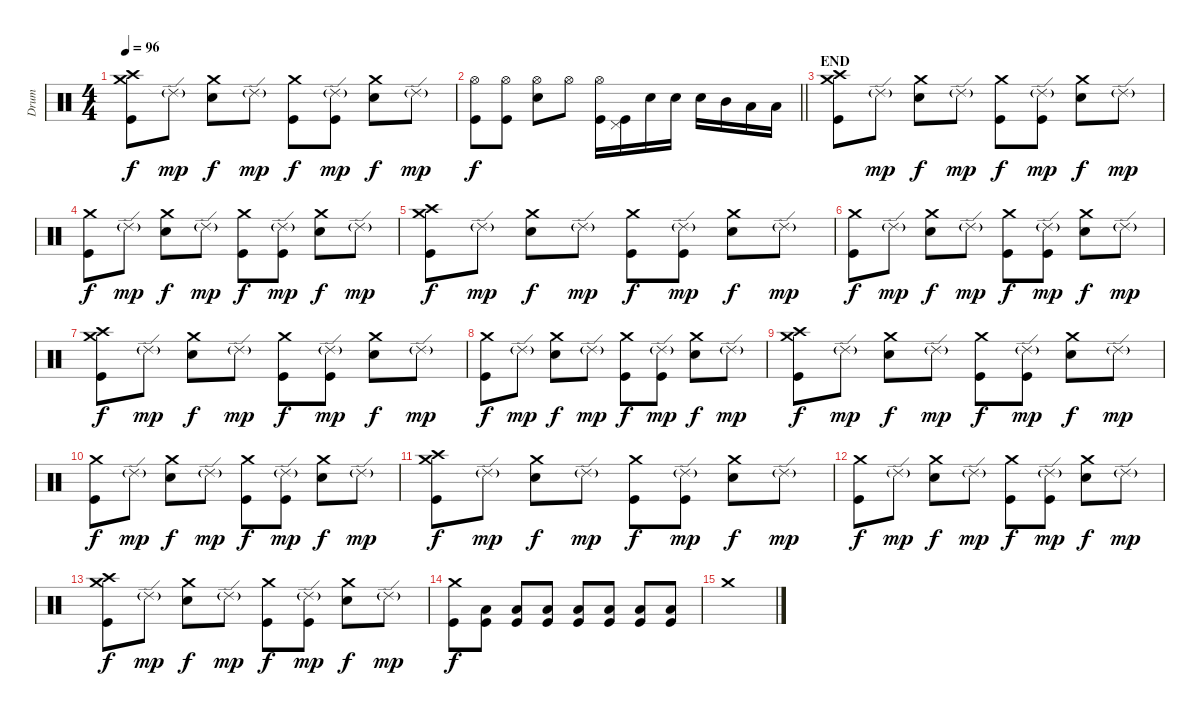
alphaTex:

\track ("Drum" "Drum") {instrument percussion}
\staff {score}
\articulation defaults
\ts (4 4)
\tempo 96
\clef neutral
\ks c
("Crash high (hit)" "Crash medium (hit)" "Kick (hit)").8{dy f} "Ride (edge) 2"{g}.8{dy mp} ("Crash medium (hit)" "Electric Snare (hit)").8{dy f} "Ride (edge) 2"{g}.8{dy mp} ("Crash medium (hit)" "Kick (hit)").8{dy f} ("Ride (edge) 2"{g} "Kick (hit)").8{dy mp} ("Crash medium (hit)" "Electric Snare (hit)").8{dy f} "Ride (edge) 2"{g}.8{dy mp} |
\barLineRight lightlight
("Hi-Hat (open)" "Kick (hit)").8{dy f} ("Hi-Hat (open)" "Kick (hit)").8 ("Hi-Hat (open)" "Electric Snare (hit)").8 "Hi-Hat (open)".8 ("Hi-Hat (open)" "Kick (hit)").16 ("Pedal Hi-Hat (hit)" "Kick (hit)").16 "Electric Snare (hit)".16 "Electric Snare (hit)".16 "Electric Snare (hit)".16 "Mid Tom (hit)".16 "Low Floor Tom (hit)".16 "Low Floor Tom (hit)".16 |
\section ("" "END")
("Crash high (hit)" "Crash medium (hit)" "Kick (hit)").8 "Ride (edge) 2"{g}.8{dy mp} ("Crash medium (hit)" "Electric Snare (hit)").8{dy f} "Ride (edge) 2"{g}.8{dy mp} ("Crash medium (hit)" "Kick (hit)").8{dy f} ("Ride (edge) 2"{g} "Kick (hit)").8{dy mp} ("Crash medium (hit)" "Electric Snare (hit)").8{dy f} "Ride (edge) 2"{g}.8{dy mp} |
("Crash medium (hit)" "Kick (hit)").8{dy f} "Ride (edge) 2"{g}.8{dy mp} ("Crash medium (hit)" "Electric Snare (hit)").8{dy f} "Ride (edge) 2"{g}.8{dy mp} ("Crash medium (hit)" "Kick (hit)").8{dy f} ("Ride (edge) 2"{g} "Kick (hit)").8{dy mp} ("Crash medium (hit)" "Electric Snare (hit)").8{dy f} "Ride (edge) 2"{g}.8{dy mp} |
("Crash high (hit)" "Crash medium (hit)" "Kick (hit)").8{dy f} "Ride (edge) 2"{g}.8{dy mp} ("Crash medium (hit)" "Electric Snare (hit)").8{dy f} "Ride (edge) 2"{g}.8{dy mp} ("Crash medium (hit)" "Kick (hit)").8{dy f} ("Ride (edge) 2"{g} "Kick (hit)").8{dy mp} ("Crash medium (hit)" "Electric Snare (hit)").8{dy f} "Ride (edge) 2"{g}.8{dy mp} |
("Crash medium (hit)" "Kick (hit)").8{dy f} "Ride (edge) 2"{g}.8{dy mp} ("Crash medium (hit)" "Electric Snare (hit)").8{dy f} "Ride (edge) 2"{g}.8{dy mp} ("Crash medium (hit)" "Kick (hit)").8{dy f} ("Ride (edge) 2"{g} "Kick (hit)").8{dy mp} ("Crash medium (hit)" "Electric Snare (hit)").8{dy f} "Ride (edge) 2"{g}.8{dy mp} |
("Crash high (hit)" "Crash medium (hit)" "Kick (hit)").8{dy f} "Ride (edge) 2"{g}.8{dy mp} ("Crash medium (hit)" "Electric Snare (hit)").8{dy f} "Ride (edge) 2"{g}.8{dy mp} ("Crash medium (hit)" "Kick (hit)").8{dy f} ("Ride (edge) 2"{g} "Kick (hit)").8{dy mp} ("Crash medium (hit)" "Electric Snare (hit)").8{dy f} "Ride (edge) 2"{g}.8{dy mp} |
("Crash medium (hit)" "Kick (hit)").8{dy f} "Ride (edge) 2"{g}.8{dy mp} ("Crash medium (hit)" "Electric Snare (hit)").8{dy f} "Ride (edge) 2"{g}.8{dy mp} ("Crash medium (hit)" "Kick (hit)").8{dy f} ("Ride (edge) 2"{g} "Kick (hit)").8{dy mp} ("Crash medium (hit)" "Electric Snare (hit)").8{dy f} "Ride (edge) 2"{g}.8{dy mp} |
("Crash high (hit)" "Crash medium (hit)" "Kick (hit)").8{dy f} "Ride (edge) 2"{g}.8{dy mp} ("Crash medium (hit)" "Electric Snare (hit)").8{dy f} "Ride (edge) 2"{g}.8{dy mp} ("Crash medium (hit)" "Kick (hit)").8{dy f} ("Ride (edge) 2"{g} "Kick (hit)").8{dy mp} ("Crash medium (hit)" "Electric Snare (hit)").8{dy f} "Ride (edge) 2"{g}.8{dy mp} |
("Crash medium (hit)" "Kick (hit)").8{dy f} "Ride (edge) 2"{g}.8{dy mp} ("Crash medium (hit)" "Electric Snare (hit)").8{dy f} "Ride (edge) 2"{g}.8{dy mp} ("Crash medium (hit)" "Kick (hit)").8{dy f} ("Ride (edge) 2"{g} "Kick (hit)").8{dy mp} ("Crash medium (hit)" "Electric Snare (hit)").8{dy f} "Ride (edge) 2"{g}.8{dy mp} |
("Crash high (hit)" "Crash medium (hit)" "Kick (hit)").8{dy f} "Ride (edge) 2"{g}.8{dy mp} ("Crash medium (hit)" "Electric Snare (hit)").8{dy f} "Ride (edge) 2"{g}.8{dy mp} ("Crash medium (hit)" "Kick (hit)").8{dy f} ("Ride (edge) 2"{g} "Kick (hit)").8{dy mp} ("Crash medium (hit)" "Electric Snare (hit)").8{dy f} "Ride (edge) 2"{g}.8{dy mp} |
("Crash medium (hit)" "Kick (hit)").8{dy f} "Ride (edge) 2"{g}.8{dy mp} ("Crash medium (hit)" "Electric Snare (hit)").8{dy f} "Ride (edge) 2"{g}.8{dy mp} ("Crash medium (hit)" "Kick (hit)").8{dy f} ("Ride (edge) 2"{g} "Kick (hit)").8{dy mp} ("Crash medium (hit)" "Electric Snare (hit)").8{dy f} "Ride (edge) 2"{g}.8{dy mp} |
("Crash high (hit)" "Crash medium (hit)" "Kick (hit)").8{dy f} "Ride (edge) 2"{g}.8{dy mp} ("Crash medium (hit)" "Electric Snare (hit)").8{dy f} "Ride (edge) 2"{g}.8{dy mp} ("Crash medium (hit)" "Kick (hit)").8{dy f} ("Ride (edge) 2"{g} "Kick (hit)").8{dy mp} ("Crash medium (hit)" "Electric Snare (hit)").8{dy f} "Ride (edge) 2"{g}.8{dy mp} |
("Crash medium (hit)" "Kick (hit)").8{dy f} ("Low Floor Tom (hit)" "Kick (hit)").8 ("Low Floor Tom (hit)" "Kick (hit)").8 ("Low Floor Tom (hit)" "Kick (hit)").8 ("Low Floor Tom (hit)" "Kick (hit)").8 ("Low Floor Tom (hit)" "Kick (hit)").8 ("Low Floor Tom (hit)" "Kick (hit)").8 ("Low Floor Tom (hit)" "Kick (hit)").8 |
"Crash medium (hit)".1
